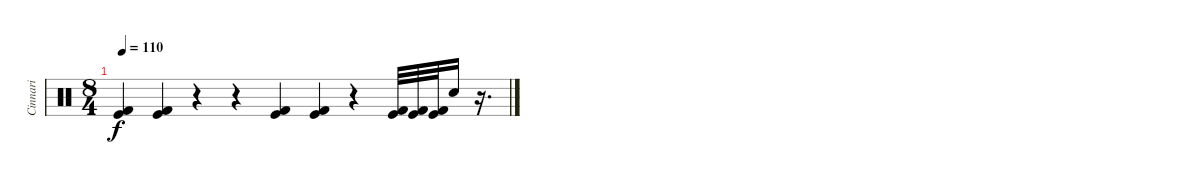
\track ("Cinnari" "Cinnari") {instrument percussion}
\staff {score}
\articulation defaults
\ts (8 4)
\tempo 110
\clef neutral
\ks c
("Kick (hit) 2" "Kick (hit)").4{dy f} ("Kick (hit) 2" "Kick (hit)").4 r.4 r.4 ("Kick (hit) 2" "Kick (hit)").4 ("Kick (hit) 2" "Kick (hit)").4 r.4 ("Kick (hit) 2" "Kick (hit)").32 ("Kick (hit) 2" "Kick (hit)").32 ("Kick (hit) 2" "Kick (hit)").32 "Electric Snare (hit)".16 r.16{d}
